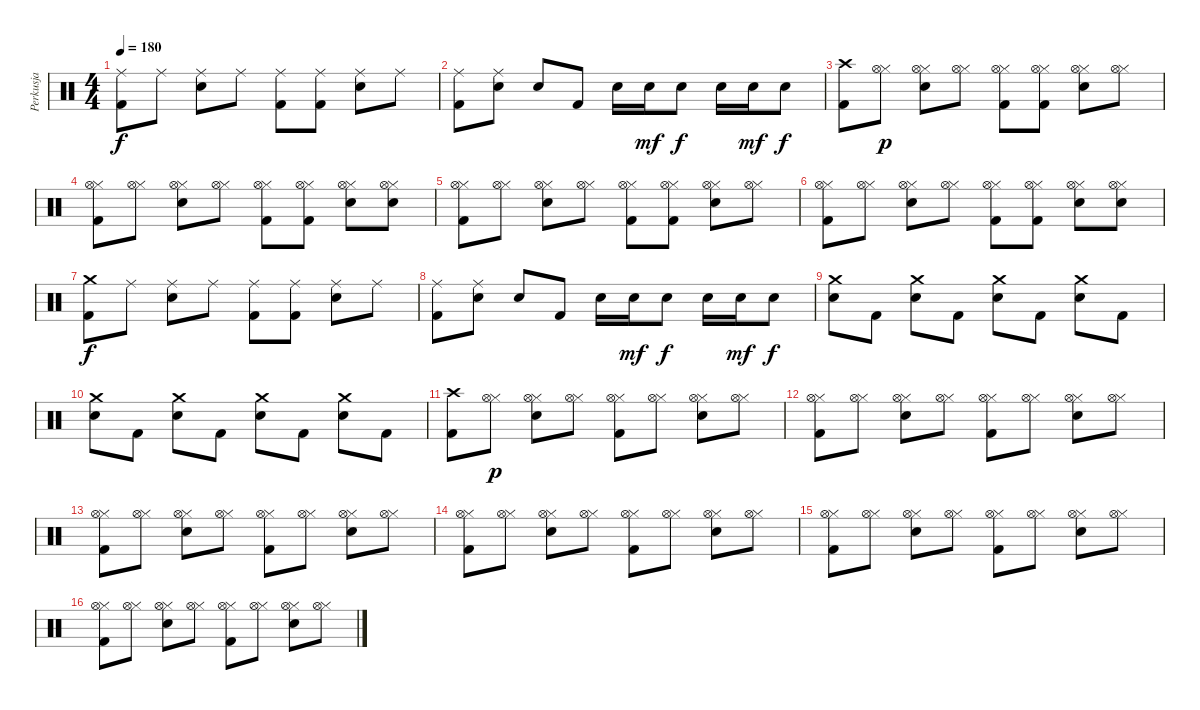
\track ("Perkusja" "Perkusja") {instrument percussion}
\staff {score}
\articulation defaults
\ts (4 4)
\tempo 180
\clef neutral
\ks c
("Kick (hit) 2" "Ride (middle)").8{dy f} "Ride (middle)".8 ("Electric Snare (hit)" "Ride (middle)").8 "Ride (middle)".8 ("Kick (hit) 2" "Ride (middle)").8 ("Kick (hit) 2" "Ride (middle)").8 ("Electric Snare (hit)" "Ride (middle)").8 "Ride (middle)".8 |
("Kick (hit) 2" "Ride (middle)").8 ("Electric Snare (hit)" "Ride (middle)").8 "Electric Snare (hit)".8 "Kick (hit) 2".8 "Electric Snare (hit)".16 "Electric Snare (hit)".16{dy mf} "Electric Snare (hit)".8{dy f} "Electric Snare (hit)".16 "Electric Snare (hit)".16{dy mf} "Electric Snare (hit)".8{dy f} |
("Kick (hit) 2" "Crash high (hit)").8 ("Hi-Hat (closed)" "Hi-Hat (open)").8{dy p} ("Electric Snare (hit)" "Hi-Hat (closed)" "Hi-Hat (open)").8 ("Hi-Hat (closed)" "Hi-Hat (open)").8 ("Kick (hit) 2" "Hi-Hat (closed)" "Hi-Hat (open)").8 ("Kick (hit) 2" "Hi-Hat (closed)" "Hi-Hat (open)").8 ("Electric Snare (hit)" "Hi-Hat (closed)" "Hi-Hat (open)").8 ("Hi-Hat (closed)" "Hi-Hat (open)").8 |
("Kick (hit) 2" "Hi-Hat (closed)" "Hi-Hat (open)").8 ("Hi-Hat (closed)" "Hi-Hat (open)").8 ("Electric Snare (hit)" "Hi-Hat (closed)" "Hi-Hat (open)").8 ("Hi-Hat (closed)" "Hi-Hat (open)").8 ("Kick (hit) 2" "Hi-Hat (closed)" "Hi-Hat (open)").8 ("Kick (hit) 2" "Hi-Hat (closed)" "Hi-Hat (open)").8 ("Electric Snare (hit)" "Hi-Hat (closed)" "Hi-Hat (open)").8 ("Electric Snare (hit)" "Hi-Hat (closed)" "Hi-Hat (open)").8 |
("Kick (hit) 2" "Hi-Hat (closed)" "Hi-Hat (open)").8 ("Hi-Hat (closed)" "Hi-Hat (open)").8 ("Electric Snare (hit)" "Hi-Hat (closed)" "Hi-Hat (open)").8 ("Hi-Hat (closed)" "Hi-Hat (open)").8 ("Kick (hit) 2" "Hi-Hat (closed)" "Hi-Hat (open)").8 ("Kick (hit) 2" "Hi-Hat (closed)" "Hi-Hat (open)").8 ("Electric Snare (hit)" "Hi-Hat (closed)" "Hi-Hat (open)").8 ("Hi-Hat (closed)" "Hi-Hat (open)").8 |
("Kick (hit) 2" "Hi-Hat (closed)" "Hi-Hat (open)").8 ("Hi-Hat (closed)" "Hi-Hat (open)").8 ("Electric Snare (hit)" "Hi-Hat (closed)" "Hi-Hat (open)").8 ("Hi-Hat (closed)" "Hi-Hat (open)").8 ("Kick (hit) 2" "Hi-Hat (closed)" "Hi-Hat (open)").8 ("Kick (hit) 2" "Hi-Hat (closed)" "Hi-Hat (open)").8 ("Electric Snare (hit)" "Hi-Hat (closed)" "Hi-Hat (open)").8 ("Electric Snare (hit)" "Hi-Hat (closed)" "Hi-Hat (open)").8 |
("Kick (hit) 2" "Crash medium (hit)").8{dy f} "Ride (middle)".8 ("Electric Snare (hit)" "Ride (middle)").8 "Ride (middle)".8 ("Kick (hit) 2" "Ride (middle)").8 ("Kick (hit) 2" "Ride (middle)").8 ("Electric Snare (hit)" "Ride (middle)").8 "Ride (middle)".8 |
("Kick (hit) 2" "Ride (middle)").8 ("Electric Snare (hit)" "Ride (middle)").8 "Electric Snare (hit)".8 "Kick (hit) 2".8 "Electric Snare (hit)".16 "Electric Snare (hit)".16{dy mf} "Electric Snare (hit)".8{dy f} "Electric Snare (hit)".16 "Electric Snare (hit)".16{dy mf} "Electric Snare (hit)".8{dy f} |
("Electric Snare (hit)" "Crash medium (hit)").8 "Kick (hit) 2".8 ("Electric Snare (hit)" "Crash medium (hit)").8 "Kick (hit) 2".8 ("Electric Snare (hit)" "Crash medium (hit)").8 "Kick (hit) 2".8 ("Electric Snare (hit)" "Crash medium (hit)").8 "Kick (hit) 2".8 |
("Electric Snare (hit)" "Crash medium (hit)").8 "Kick (hit) 2".8 ("Electric Snare (hit)" "Crash medium (hit)").8 "Kick (hit) 2".8 ("Electric Snare (hit)" "Crash medium (hit)").8 "Kick (hit) 2".8 ("Electric Snare (hit)" "Crash medium (hit)").8 "Kick (hit) 2".8 |
("Kick (hit) 2" "Crash high (hit)").8 ("Hi-Hat (closed)" "Hi-Hat (open)").8{dy p} ("Electric Snare (hit)" "Hi-Hat (closed)" "Hi-Hat (open)").8 ("Hi-Hat (closed)" "Hi-Hat (open)").8 ("Kick (hit) 2" "Hi-Hat (closed)" "Hi-Hat (open)").8 ("Hi-Hat (closed)" "Hi-Hat (open)").8 ("Electric Snare (hit)" "Hi-Hat (closed)" "Hi-Hat (open)").8 ("Hi-Hat (closed)" "Hi-Hat (open)").8 |
("Kick (hit) 2" "Hi-Hat (closed)" "Hi-Hat (open)").8 ("Hi-Hat (closed)" "Hi-Hat (open)").8 ("Electric Snare (hit)" "Hi-Hat (closed)" "Hi-Hat (open)").8 ("Hi-Hat (closed)" "Hi-Hat (open)").8 ("Kick (hit) 2" "Hi-Hat (closed)" "Hi-Hat (open)").8 ("Hi-Hat (closed)" "Hi-Hat (open)").8 ("Electric Snare (hit)" "Hi-Hat (closed)" "Hi-Hat (open)").8 ("Hi-Hat (closed)" "Hi-Hat (open)").8 |
("Kick (hit) 2" "Hi-Hat (closed)" "Hi-Hat (open)").8 ("Hi-Hat (closed)" "Hi-Hat (open)").8 ("Electric Snare (hit)" "Hi-Hat (closed)" "Hi-Hat (open)").8 ("Hi-Hat (closed)" "Hi-Hat (open)").8 ("Kick (hit) 2" "Hi-Hat (closed)" "Hi-Hat (open)").8 ("Hi-Hat (closed)" "Hi-Hat (open)").8 ("Electric Snare (hit)" "Hi-Hat (closed)" "Hi-Hat (open)").8 ("Hi-Hat (closed)" "Hi-Hat (open)").8 |
("Kick (hit) 2" "Hi-Hat (closed)" "Hi-Hat (open)").8 ("Hi-Hat (closed)" "Hi-Hat (open)").8 ("Electric Snare (hit)" "Hi-Hat (closed)" "Hi-Hat (open)").8 ("Hi-Hat (closed)" "Hi-Hat (open)").8 ("Kick (hit) 2" "Hi-Hat (closed)" "Hi-Hat (open)").8 ("Hi-Hat (closed)" "Hi-Hat (open)").8 ("Electric Snare (hit)" "Hi-Hat (closed)" "Hi-Hat (open)").8 ("Hi-Hat (closed)" "Hi-Hat (open)").8 |
("Kick (hit) 2" "Hi-Hat (closed)" "Hi-Hat (open)").8 ("Hi-Hat (closed)" "Hi-Hat (open)").8 ("Electric Snare (hit)" "Hi-Hat (closed)" "Hi-Hat (open)").8 ("Hi-Hat (closed)" "Hi-Hat (open)").8 ("Kick (hit) 2" "Hi-Hat (closed)" "Hi-Hat (open)").8 ("Hi-Hat (closed)" "Hi-Hat (open)").8 ("Electric Snare (hit)" "Hi-Hat (closed)" "Hi-Hat (open)").8 ("Hi-Hat (closed)" "Hi-Hat (open)").8 |
("Kick (hit) 2" "Hi-Hat (closed)" "Hi-Hat (open)").8 ("Hi-Hat (closed)" "Hi-Hat (open)").8 ("Electric Snare (hit)" "Hi-Hat (closed)" "Hi-Hat (open)").8 ("Hi-Hat (closed)" "Hi-Hat (open)").8 ("Kick (hit) 2" "Hi-Hat (closed)" "Hi-Hat (open)").8 ("Hi-Hat (closed)" "Hi-Hat (open)").8 ("Electric Snare (hit)" "Hi-Hat (closed)" "Hi-Hat (open)").8 ("Hi-Hat (closed)" "Hi-Hat (open)").8
